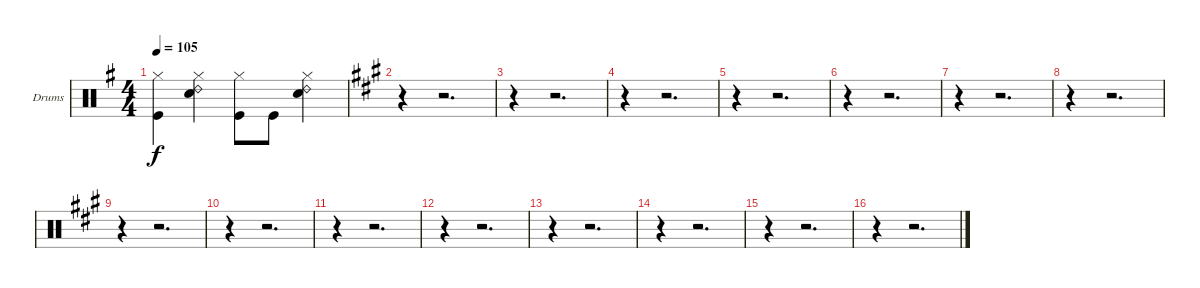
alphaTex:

\bracketExtendMode groupsimilarinstruments
\firstSystemTrackNameOrientation horizontal
\otherSystemsTrackNameOrientation horizontal
\track ("Drumkit" "Drums") {instrument percussion}
\staff {score}
\articulation defaults
\ts (4 4)
\tempo 105
\clef neutral
\ks g
("Hi-Hat (closed)" "Kick (hit)").4{dy f} ("Hi-Hat (closed)" "Ride (bell) 2" "Snare (hit) 2").4 ("Hi-Hat (closed)" "Kick (hit)").8 "Kick (hit)".8 ("Hi-Hat (closed)" "Ride (bell) 2" "Snare (hit) 2").4 |
\ks a
r.4 r.2{d} |
r.4 r.2{d} |
r.4 r.2{d} |
r.4 r.2{d} |
r.4 r.2{d} |
r.4 r.2{d} |
r.4 r.2{d} |
r.4 r.2{d} |
r.4 r.2{d} |
r.4 r.2{d} |
r.4 r.2{d} |
r.4 r.2{d} |
r.4 r.2{d} |
r.4 r.2{d} |
r.4 r.2{d}
